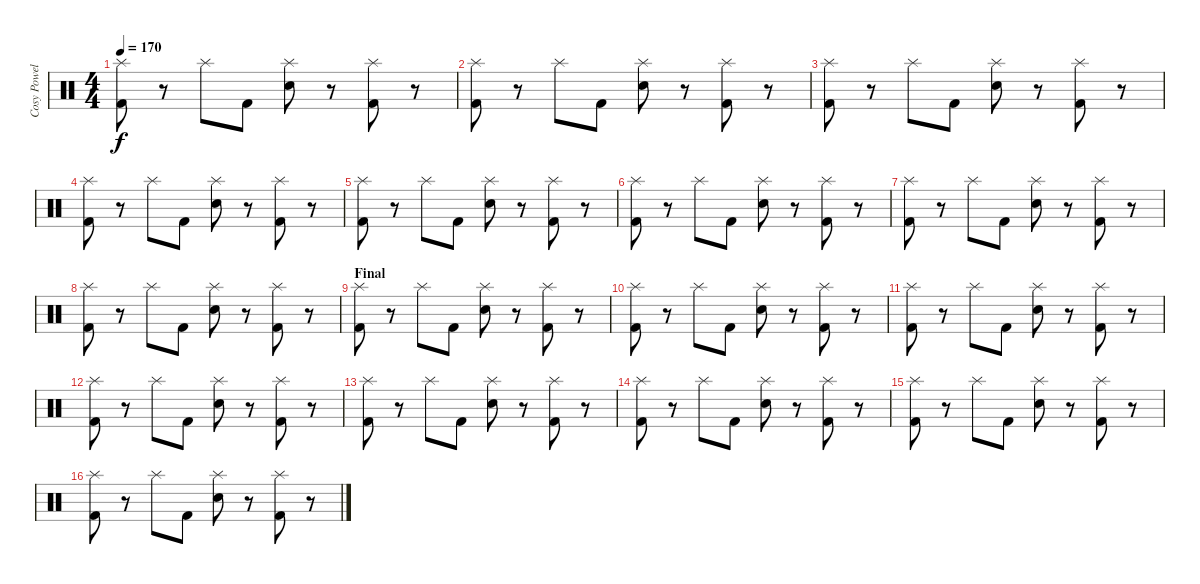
\track ("Cosy Powell" "Cosy Powel") {instrument percussion}
\staff {score}
\articulation defaults
\ts (4 4)
\tempo 170
\clef neutral
\ks c
("Splash (hit)" "Kick (hit) 2").8{dy f} r.8 "Splash (hit)".8 "Kick (hit) 2".8 ("Splash (hit)" "Snare (hit) 2").8 r.8 ("Splash (hit)" "Kick (hit) 2").8 r.8 |
("Splash (hit)" "Kick (hit) 2").8 r.8 "Splash (hit)".8 "Kick (hit) 2".8 ("Splash (hit)" "Snare (hit) 2").8 r.8 ("Splash (hit)" "Kick (hit) 2").8 r.8 |
("Splash (hit)" "Kick (hit) 2").8 r.8 "Splash (hit)".8 "Kick (hit) 2".8 ("Splash (hit)" "Snare (hit) 2").8 r.8 ("Splash (hit)" "Kick (hit) 2").8 r.8 |
("Splash (hit)" "Kick (hit) 2").8 r.8 "Splash (hit)".8 "Kick (hit) 2".8 ("Splash (hit)" "Snare (hit) 2").8 r.8 ("Splash (hit)" "Kick (hit) 2").8 r.8 |
("Splash (hit)" "Kick (hit) 2").8 r.8 "Splash (hit)".8 "Kick (hit) 2".8 ("Splash (hit)" "Snare (hit) 2").8 r.8 ("Splash (hit)" "Kick (hit) 2").8 r.8 |
("Splash (hit)" "Kick (hit) 2").8 r.8 "Splash (hit)".8 "Kick (hit) 2".8 ("Splash (hit)" "Snare (hit) 2").8 r.8 ("Splash (hit)" "Kick (hit) 2").8 r.8 |
("Splash (hit)" "Kick (hit) 2").8 r.8 "Splash (hit)".8 "Kick (hit) 2".8 ("Splash (hit)" "Snare (hit) 2").8 r.8 ("Splash (hit)" "Kick (hit) 2").8 r.8 |
("Splash (hit)" "Kick (hit) 2").8 r.8 "Splash (hit)".8 "Kick (hit) 2".8 ("Splash (hit)" "Snare (hit) 2").8 r.8 ("Splash (hit)" "Kick (hit) 2").8 r.8 |
\section ("" "Final")
("Splash (hit)" "Kick (hit) 2").8 r.8 "Splash (hit)".8 "Kick (hit) 2".8 ("Splash (hit)" "Snare (hit) 2").8 r.8 ("Splash (hit)" "Kick (hit) 2").8 r.8 |
("Splash (hit)" "Kick (hit) 2").8 r.8 "Splash (hit)".8 "Kick (hit) 2".8 ("Splash (hit)" "Snare (hit) 2").8 r.8 ("Splash (hit)" "Kick (hit) 2").8 r.8 |
("Splash (hit)" "Kick (hit) 2").8 r.8 "Splash (hit)".8 "Kick (hit) 2".8 ("Splash (hit)" "Snare (hit) 2").8 r.8 ("Splash (hit)" "Kick (hit) 2").8 r.8 |
("Splash (hit)" "Kick (hit) 2").8 r.8 "Splash (hit)".8 "Kick (hit) 2".8 ("Splash (hit)" "Snare (hit) 2").8 r.8 ("Splash (hit)" "Kick (hit) 2").8 r.8 |
("Splash (hit)" "Kick (hit) 2").8 r.8 "Splash (hit)".8 "Kick (hit) 2".8 ("Splash (hit)" "Snare (hit) 2").8 r.8 ("Splash (hit)" "Kick (hit) 2").8 r.8 |
("Splash (hit)" "Kick (hit) 2").8 r.8 "Splash (hit)".8 "Kick (hit) 2".8 ("Splash (hit)" "Snare (hit) 2").8 r.8 ("Splash (hit)" "Kick (hit) 2").8 r.8 |
("Splash (hit)" "Kick (hit) 2").8 r.8 "Splash (hit)".8 "Kick (hit) 2".8 ("Splash (hit)" "Snare (hit) 2").8 r.8 ("Splash (hit)" "Kick (hit) 2").8 r.8 |
("Splash (hit)" "Kick (hit) 2").8 r.8 "Splash (hit)".8 "Kick (hit) 2".8 ("Splash (hit)" "Snare (hit) 2").8 r.8 ("Splash (hit)" "Kick (hit) 2").8 r.8
